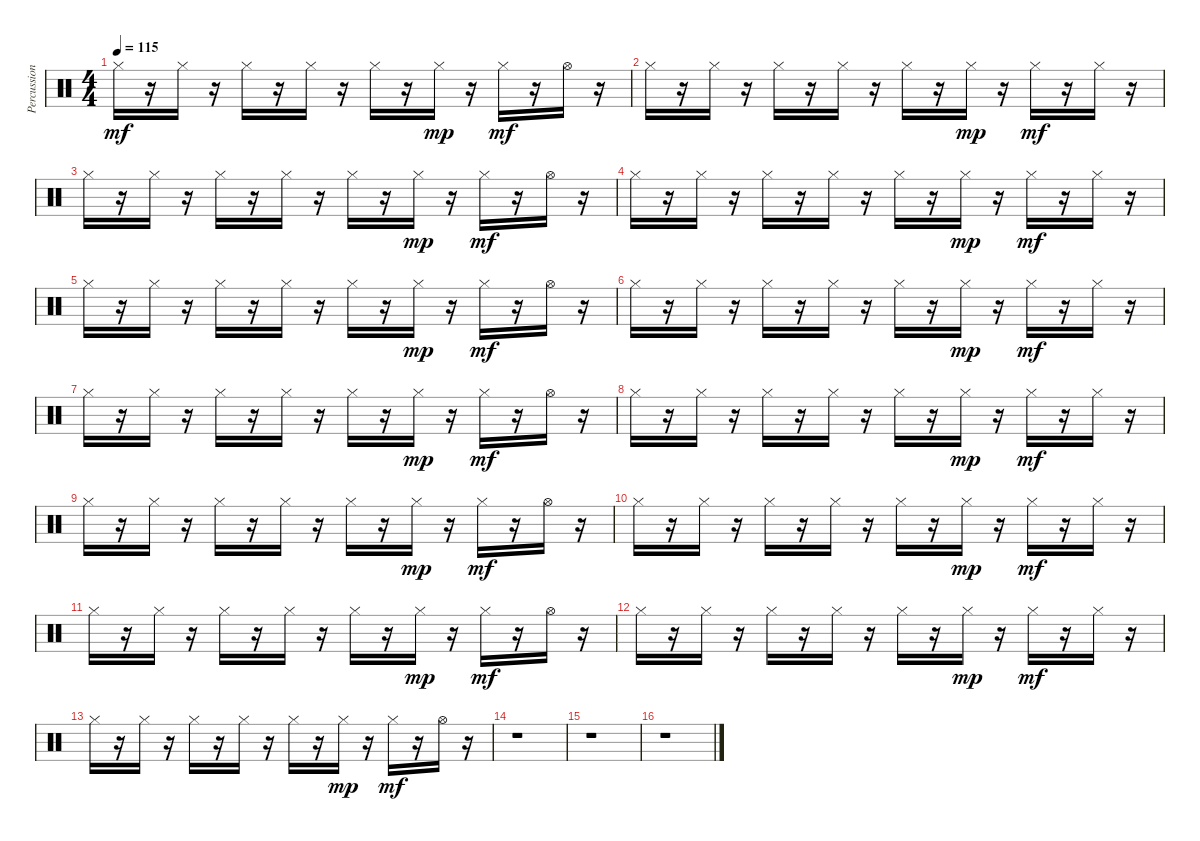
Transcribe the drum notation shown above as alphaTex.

\track ("Percussion" "Percussion") {instrument percussion}
\staff {score}
\articulation defaults
\ts (4 4)
\tempo 115
\clef neutral
\ks c "Hi-Hat (closed)".16{dy mf}
r.16 "Hi-Hat (closed)".16 r.16 "Hi-Hat (closed)".16 r.16 "Hi-Hat (closed)".16 r.16 "Hi-Hat (closed)".16 r.16 "Hi-Hat (closed)".16{dy mp} r.16 "Hi-Hat (closed)".16{dy mf} r.16 "Hi-Hat (open)".16 r.16 |
"Hi-Hat (closed)".16 r.16 "Hi-Hat (closed)".16 r.16 "Hi-Hat (closed)".16 r.16 "Hi-Hat (closed)".16 r.16 "Hi-Hat (closed)".16 r.16 "Hi-Hat (closed)".16{dy mp} r.16 "Hi-Hat (closed)".16{dy mf} r.16 "Hi-Hat (closed)".16 r.16 |
"Hi-Hat (closed)".16 r.16 "Hi-Hat (closed)".16 r.16 "Hi-Hat (closed)".16 r.16 "Hi-Hat (closed)".16 r.16 "Hi-Hat (closed)".16 r.16 "Hi-Hat (closed)".16{dy mp} r.16 "Hi-Hat (closed)".16{dy mf} r.16 "Hi-Hat (open)".16 r.16 |
"Hi-Hat (closed)".16 r.16 "Hi-Hat (closed)".16 r.16 "Hi-Hat (closed)".16 r.16 "Hi-Hat (closed)".16 r.16 "Hi-Hat (closed)".16 r.16 "Hi-Hat (closed)".16{dy mp} r.16 "Hi-Hat (closed)".16{dy mf} r.16 "Hi-Hat (closed)".16 r.16 |
"Hi-Hat (closed)".16 r.16 "Hi-Hat (closed)".16 r.16 "Hi-Hat (closed)".16 r.16 "Hi-Hat (closed)".16 r.16 "Hi-Hat (closed)".16 r.16 "Hi-Hat (closed)".16{dy mp} r.16 "Hi-Hat (closed)".16{dy mf} r.16 "Hi-Hat (open)".16 r.16 |
"Hi-Hat (closed)".16 r.16 "Hi-Hat (closed)".16 r.16 "Hi-Hat (closed)".16 r.16 "Hi-Hat (closed)".16 r.16 "Hi-Hat (closed)".16 r.16 "Hi-Hat (closed)".16{dy mp} r.16 "Hi-Hat (closed)".16{dy mf} r.16 "Hi-Hat (closed)".16 r.16 |
"Hi-Hat (closed)".16 r.16 "Hi-Hat (closed)".16 r.16 "Hi-Hat (closed)".16 r.16 "Hi-Hat (closed)".16 r.16 "Hi-Hat (closed)".16 r.16 "Hi-Hat (closed)".16{dy mp} r.16 "Hi-Hat (closed)".16{dy mf} r.16 "Hi-Hat (open)".16 r.16 |
"Hi-Hat (closed)".16 r.16 "Hi-Hat (closed)".16 r.16 "Hi-Hat (closed)".16 r.16 "Hi-Hat (closed)".16 r.16 "Hi-Hat (closed)".16 r.16 "Hi-Hat (closed)".16{dy mp} r.16 "Hi-Hat (closed)".16{dy mf} r.16 "Hi-Hat (closed)".16 r.16 |
"Hi-Hat (closed)".16 r.16 "Hi-Hat (closed)".16 r.16 "Hi-Hat (closed)".16 r.16 "Hi-Hat (closed)".16 r.16 "Hi-Hat (closed)".16 r.16 "Hi-Hat (closed)".16{dy mp} r.16 "Hi-Hat (closed)".16{dy mf} r.16 "Hi-Hat (open)".16 r.16 |
"Hi-Hat (closed)".16 r.16 "Hi-Hat (closed)".16 r.16 "Hi-Hat (closed)".16 r.16 "Hi-Hat (closed)".16 r.16 "Hi-Hat (closed)".16 r.16 "Hi-Hat (closed)".16{dy mp} r.16 "Hi-Hat (closed)".16{dy mf} r.16 "Hi-Hat (closed)".16 r.16 |
"Hi-Hat (closed)".16 r.16 "Hi-Hat (closed)".16 r.16 "Hi-Hat (closed)".16 r.16 "Hi-Hat (closed)".16 r.16 "Hi-Hat (closed)".16 r.16 "Hi-Hat (closed)".16{dy mp} r.16 "Hi-Hat (closed)".16{dy mf} r.16 "Hi-Hat (open)".16 r.16 |
"Hi-Hat (closed)".16 r.16 "Hi-Hat (closed)".16 r.16 "Hi-Hat (closed)".16 r.16 "Hi-Hat (closed)".16 r.16 "Hi-Hat (closed)".16 r.16 "Hi-Hat (closed)".16{dy mp} r.16 "Hi-Hat (closed)".16{dy mf} r.16 "Hi-Hat (closed)".16 r.16 |
"Hi-Hat (closed)".16 r.16 "Hi-Hat (closed)".16 r.16 "Hi-Hat (closed)".16 r.16 "Hi-Hat (closed)".16 r.16 "Hi-Hat (closed)".16 r.16 "Hi-Hat (closed)".16{dy mp} r.16 "Hi-Hat (closed)".16{dy mf} r.16 "Hi-Hat (open)".16 r.16 |
r.1 |
r.1 |
r.1
